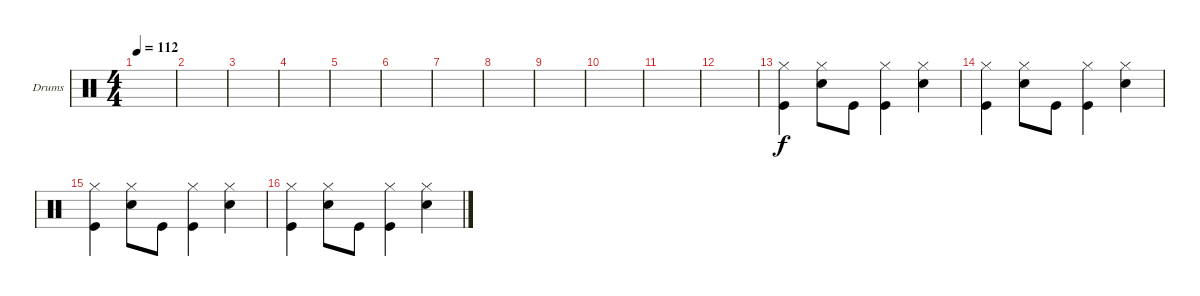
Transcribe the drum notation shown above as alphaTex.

\defaultSystemsLayout 4
\bracketExtendMode groupsimilarinstruments
\firstSystemTrackNameOrientation horizontal
\otherSystemsTrackNameOrientation horizontal
\track ("Drumkit" "Drums") {instrument percussion}
\staff {score}
\articulation defaults
\ts (4 4)
\tempo 112
\clef neutral
\ks c
|
|
|
|
|
|
|
|
|
|
|
|
("Kick (hit)" "Hi-Hat (closed)").4 ("Snare (hit) 2" "Hi-Hat (closed)").8 "Kick (hit)".8 ("Kick (hit)" "Hi-Hat (closed)").4 ("Snare (hit) 2" "Hi-Hat (closed)").4 |
("Kick (hit)" "Hi-Hat (closed)").4 ("Snare (hit) 2" "Hi-Hat (closed)").8 "Kick (hit)".8 ("Kick (hit)" "Hi-Hat (closed)").4 ("Snare (hit) 2" "Hi-Hat (closed)").4 |
("Kick (hit)" "Hi-Hat (closed)").4 ("Snare (hit) 2" "Hi-Hat (closed)").8 "Kick (hit)".8 ("Kick (hit)" "Hi-Hat (closed)").4 ("Snare (hit) 2" "Hi-Hat (closed)").4 |
("Kick (hit)" "Hi-Hat (closed)").4 ("Snare (hit) 2" "Hi-Hat (closed)").8 "Kick (hit)".8 ("Kick (hit)" "Hi-Hat (closed)").4 ("Snare (hit) 2" "Hi-Hat (closed)").4
